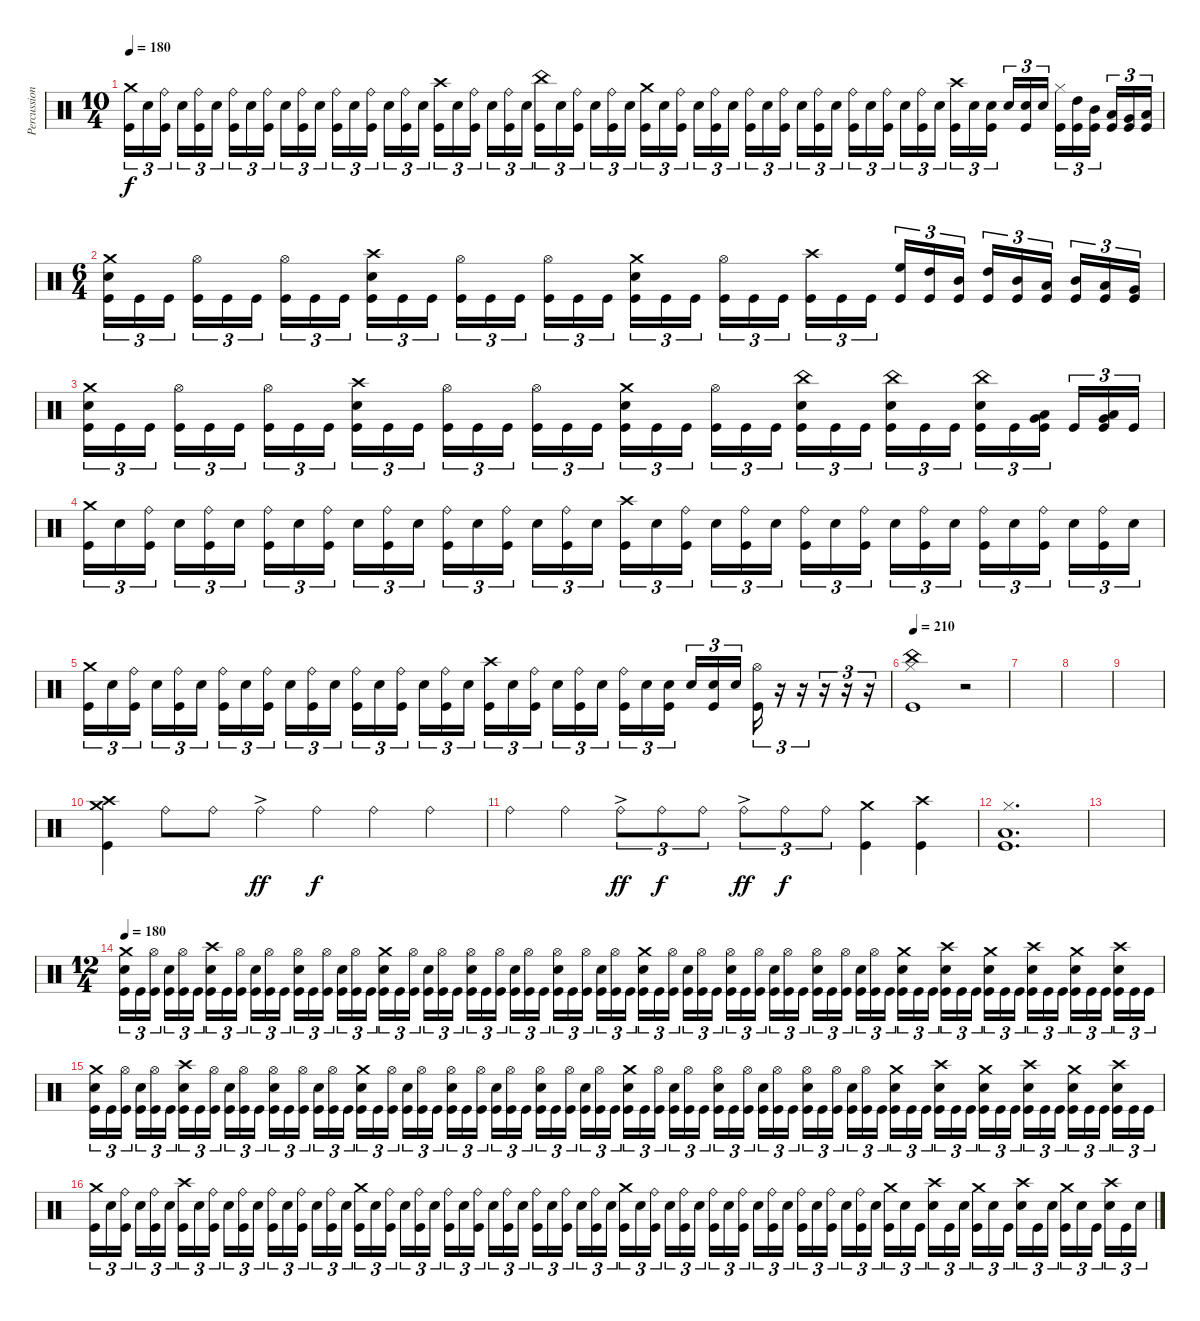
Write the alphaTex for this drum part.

\track ("Percussion" "Percussion") {instrument percussion}
\staff {score}
\articulation defaults
\ts (10 4)
\tempo 180
\clef neutral
\ks c
("Crash medium (hit)" "Kick (hit)").16{tu (3 2) dy f} "Snare (hit) 2".16{tu (3 2)} ("Ride (bell)" "Kick (hit)").16{tu (3 2) beam splitsecondary} "Snare (hit) 2".16{tu (3 2)} ("Ride (bell)" "Kick (hit)").16{tu (3 2)} "Snare (hit) 2".16{tu (3 2)} ("Ride (bell)" "Kick (hit)").16{tu (3 2)} "Snare (hit) 2".16{tu (3 2)} ("Ride (bell)" "Kick (hit)").16{tu (3 2) beam splitsecondary} "Snare (hit) 2".16{tu (3 2)} ("Ride (bell)" "Kick (hit)").16{tu (3 2)} "Snare (hit) 2".16{tu (3 2)} ("Ride (bell)" "Kick (hit)").16{tu (3 2)} "Snare (hit) 2".16{tu (3 2)} ("Ride (bell)" "Kick (hit)").16{tu (3 2) beam splitsecondary} "Snare (hit) 2".16{tu (3 2)} ("Ride (bell)" "Kick (hit)").16{tu (3 2)} "Snare (hit) 2".16{tu (3 2)} ("Crash high (hit)" "Kick (hit)").16{tu (3 2)} "Snare (hit) 2".16{tu (3 2)} ("Ride (bell)" "Kick (hit)").16{tu (3 2) beam splitsecondary} "Snare (hit) 2".16{tu (3 2)} ("Ride (bell)" "Kick (hit)").16{tu (3 2)} "Snare (hit) 2".16{tu (3 2)} ("China (hit)" "Kick (hit)").16{tu (3 2)} "Snare (hit) 2".16{tu (3 2)} ("Ride (bell)" "Kick (hit)").16{tu (3 2) beam splitsecondary} "Snare (hit) 2".16{tu (3 2)} ("Ride (bell)" "Kick (hit)").16{tu (3 2)} "Snare (hit) 2".16{tu (3 2)} ("Crash medium (hit)" "Kick (hit)").16{tu (3 2)} "Snare (hit) 2".16{tu (3 2)} ("Ride (bell)" "Kick (hit)").16{tu (3 2) beam splitsecondary} "Snare (hit) 2".16{tu (3 2)} ("Ride (bell)" "Kick (hit)").16{tu (3 2)} "Snare (hit) 2".16{tu (3 2)} ("Ride (bell)" "Kick (hit)").16{tu (3 2)} "Snare (hit) 2".16{tu (3 2)} ("Ride (bell)" "Kick (hit)").16{tu (3 2) beam splitsecondary} "Snare (hit) 2".16{tu (3 2)} ("Ride (bell)" "Kick (hit)").16{tu (3 2)} "Snare (hit) 2".16{tu (3 2)} ("Ride (bell)" "Kick (hit)").16{tu (3 2)} "Snare (hit) 2".16{tu (3 2)} ("Ride (bell)" "Kick (hit)").16{tu (3 2) beam splitsecondary} "Snare (hit) 2".16{tu (3 2)} ("Ride (bell)" "Kick (hit)").16{tu (3 2)} "Snare (hit) 2".16{tu (3 2)} ("Crash high (hit)" "Kick (hit)").16{tu (3 2)} "Snare (hit) 2".16{tu (3 2)} ("Snare (hit) 2" "Kick (hit)").16{tu (3 2) beam splitsecondary} "Snare (hit) 2".16{tu (3 2)} ("Snare (hit) 2" "Kick (hit)").16{tu (3 2)} "Snare (hit) 2".16{tu (3 2)} ("Hi-Hat (closed)" "Kick (hit)").16{tu (3 2)} ("High Tom (hit)" "Kick (hit)").16{tu (3 2)} ("Mid Tom (hit)" "Kick (hit)").16{tu (3 2) beam splitsecondary} ("Low Tom (hit)" "Kick (hit)").16{tu (3 2)} ("Very Low Tom (hit)" "Kick (hit)").16{tu (3 2)} ("Low Floor Tom (hit)" "Kick (hit)").16{tu (3 2)} |
\ts (6 4)
("Crash medium (hit)" "Snare (hit) 2" "Kick (hit)").16{tu (3 2)} "Kick (hit)".16{tu (3 2)} "Kick (hit)".16{tu (3 2) beam splitsecondary} ("Hi-Hat (open)" "Kick (hit)").16{tu (3 2)} "Kick (hit)".16{tu (3 2)} "Kick (hit)".16{tu (3 2) beam splitsecondary} ("Hi-Hat (open)" "Kick (hit)").16{tu (3 2)} "Kick (hit)".16{tu (3 2)} "Kick (hit)".16{tu (3 2) beam splitsecondary} ("Crash high (hit)" "Snare (hit) 2" "Kick (hit)").16{tu (3 2)} "Kick (hit)".16{tu (3 2)} "Kick (hit)".16{tu (3 2) beam splitsecondary} ("Hi-Hat (open)" "Kick (hit)").16{tu (3 2)} "Kick (hit)".16{tu (3 2)} "Kick (hit)".16{tu (3 2) beam splitsecondary} ("Hi-Hat (open)" "Kick (hit)").16{tu (3 2)} "Kick (hit)".16{tu (3 2)} "Kick (hit)".16{tu (3 2)} ("Crash medium (hit)" "Snare (hit) 2" "Kick (hit)").16{tu (3 2)} "Kick (hit)".16{tu (3 2)} "Kick (hit)".16{tu (3 2) beam splitsecondary} ("Hi-Hat (open)" "Kick (hit)").16{tu (3 2)} "Kick (hit)".16{tu (3 2)} "Kick (hit)".16{tu (3 2) beam splitsecondary} ("Crash high (hit)" "Kick (hit)").16{tu (3 2)} "Kick (hit)".16{tu (3 2)} "Kick (hit)".16{tu (3 2) beam splitsecondary} ("High Floor Tom (hit)" "Kick (hit)").16{tu (3 2)} ("High Tom (hit)" "Kick (hit)").16{tu (3 2)} ("Mid Tom (hit)" "Kick (hit)").16{tu (3 2) beam splitsecondary} ("High Tom (hit)" "Kick (hit)").16{tu (3 2)} ("Mid Tom (hit)" "Kick (hit)").16{tu (3 2)} ("Low Tom (hit)" "Kick (hit)").16{tu (3 2) beam splitsecondary} ("Mid Tom (hit)" "Kick (hit)").16{tu (3 2)} ("Low Tom (hit)" "Kick (hit)").16{tu (3 2)} ("Very Low Tom (hit)" "Kick (hit)").16{tu (3 2)} |
("Crash medium (hit)" "Snare (hit) 2" "Kick (hit)").16{tu (3 2)} "Kick (hit)".16{tu (3 2)} "Kick (hit)".16{tu (3 2) beam splitsecondary} ("Hi-Hat (open)" "Kick (hit)").16{tu (3 2)} "Kick (hit)".16{tu (3 2)} "Kick (hit)".16{tu (3 2) beam splitsecondary} ("Hi-Hat (open)" "Kick (hit)").16{tu (3 2)} "Kick (hit)".16{tu (3 2)} "Kick (hit)".16{tu (3 2) beam splitsecondary} ("Crash high (hit)" "Snare (hit) 2" "Kick (hit)").16{tu (3 2)} "Kick (hit)".16{tu (3 2)} "Kick (hit)".16{tu (3 2) beam splitsecondary} ("Hi-Hat (open)" "Kick (hit)").16{tu (3 2)} "Kick (hit)".16{tu (3 2)} "Kick (hit)".16{tu (3 2) beam splitsecondary} ("Hi-Hat (open)" "Kick (hit)").16{tu (3 2)} "Kick (hit)".16{tu (3 2)} "Kick (hit)".16{tu (3 2)} ("Crash medium (hit)" "Snare (hit) 2" "Kick (hit)").16{tu (3 2)} "Kick (hit)".16{tu (3 2)} "Kick (hit)".16{tu (3 2) beam splitsecondary} ("Hi-Hat (open)" "Kick (hit)").16{tu (3 2)} "Kick (hit)".16{tu (3 2)} "Kick (hit)".16{tu (3 2) beam splitsecondary} ("China (hit)" "Snare (hit) 2" "Kick (hit)").16{tu (3 2)} "Kick (hit)".16{tu (3 2)} "Kick (hit)".16{tu (3 2) beam splitsecondary} ("China (hit)" "Snare (hit) 2" "Kick (hit)").16{tu (3 2)} "Kick (hit)".16{tu (3 2)} "Kick (hit)".16{tu (3 2) beam splitsecondary} ("China (hit)" "Snare (hit) 2" "Kick (hit)").16{tu (3 2)} "Kick (hit)".16{tu (3 2)} ("Very Low Tom (hit)" "Low Floor Tom (hit)" "Kick (hit)").16{tu (3 2) beam splitsecondary} "Kick (hit)".16{tu (3 2)} ("Very Low Tom (hit)" "Low Floor Tom (hit)" "Kick (hit)").16{tu (3 2)} "Kick (hit)".16{tu (3 2)} |
("Crash medium (hit)" "Kick (hit)").16{tu (3 2)} "Snare (hit) 2".16{tu (3 2)} ("Ride (bell)" "Kick (hit)").16{tu (3 2) beam splitsecondary} "Snare (hit) 2".16{tu (3 2)} ("Ride (bell)" "Kick (hit)").16{tu (3 2)} "Snare (hit) 2".16{tu (3 2) beam splitsecondary} ("Ride (bell)" "Kick (hit)").16{tu (3 2)} "Snare (hit) 2".16{tu (3 2)} ("Ride (bell)" "Kick (hit)").16{tu (3 2) beam splitsecondary} "Snare (hit) 2".16{tu (3 2)} ("Ride (bell)" "Kick (hit)").16{tu (3 2)} "Snare (hit) 2".16{tu (3 2) beam splitsecondary} ("Ride (bell)" "Kick (hit)").16{tu (3 2)} "Snare (hit) 2".16{tu (3 2)} ("Ride (bell)" "Kick (hit)").16{tu (3 2) beam splitsecondary} "Snare (hit) 2".16{tu (3 2)} ("Ride (bell)" "Kick (hit)").16{tu (3 2)} "Snare (hit) 2".16{tu (3 2)} ("Crash high (hit)" "Kick (hit)").16{tu (3 2)} "Snare (hit) 2".16{tu (3 2)} ("Ride (bell)" "Kick (hit)").16{tu (3 2) beam splitsecondary} "Snare (hit) 2".16{tu (3 2)} ("Ride (bell)" "Kick (hit)").16{tu (3 2)} "Snare (hit) 2".16{tu (3 2) beam splitsecondary} ("Ride (bell)" "Kick (hit)").16{tu (3 2)} "Snare (hit) 2".16{tu (3 2)} ("Ride (bell)" "Kick (hit)").16{tu (3 2) beam splitsecondary} "Snare (hit) 2".16{tu (3 2)} ("Ride (bell)" "Kick (hit)").16{tu (3 2)} "Snare (hit) 2".16{tu (3 2) beam splitsecondary} ("Ride (bell)" "Kick (hit)").16{tu (3 2)} "Snare (hit) 2".16{tu (3 2)} ("Ride (bell)" "Kick (hit)").16{tu (3 2) beam splitsecondary} "Snare (hit) 2".16{tu (3 2)} ("Ride (bell)" "Kick (hit)").16{tu (3 2)} "Snare (hit) 2".16{tu (3 2)} |
("Crash medium (hit)" "Kick (hit)").16{tu (3 2)} "Snare (hit) 2".16{tu (3 2)} ("Ride (bell)" "Kick (hit)").16{tu (3 2) beam splitsecondary} "Snare (hit) 2".16{tu (3 2)} ("Ride (bell)" "Kick (hit)").16{tu (3 2)} "Snare (hit) 2".16{tu (3 2) beam splitsecondary} ("Ride (bell)" "Kick (hit)").16{tu (3 2)} "Snare (hit) 2".16{tu (3 2)} ("Ride (bell)" "Kick (hit)").16{tu (3 2) beam splitsecondary} "Snare (hit) 2".16{tu (3 2)} ("Ride (bell)" "Kick (hit)").16{tu (3 2)} "Snare (hit) 2".16{tu (3 2) beam splitsecondary} ("Ride (bell)" "Kick (hit)").16{tu (3 2)} "Snare (hit) 2".16{tu (3 2)} ("Ride (bell)" "Kick (hit)").16{tu (3 2) beam splitsecondary} "Snare (hit) 2".16{tu (3 2)} ("Ride (bell)" "Kick (hit)").16{tu (3 2)} "Snare (hit) 2".16{tu (3 2)} ("Crash high (hit)" "Kick (hit)").16{tu (3 2)} "Snare (hit) 2".16{tu (3 2)} ("Ride (bell)" "Kick (hit)").16{tu (3 2) beam splitsecondary} "Snare (hit) 2".16{tu (3 2)} ("Ride (bell)" "Kick (hit)").16{tu (3 2)} "Snare (hit) 2".16{tu (3 2) beam splitsecondary} ("Ride (bell)" "Kick (hit)").16{tu (3 2)} "Snare (hit) 2".16{tu (3 2)} ("Snare (hit) 2" "Kick (hit)").16{tu (3 2) beam splitsecondary} "Snare (hit) 2".16{tu (3 2)} ("Snare (hit) 2" "Kick (hit)").16{tu (3 2)} "Snare (hit) 2".16{tu (3 2) beam splitsecondary} ("Hi-Hat (open)" "Kick (hit)").16{tu (3 2)} r.16{tu (3 2)} r.16{tu (3 2)} r.16{tu (3 2)} r.16{tu (3 2)} r.16{tu (3 2)} |
\tempo 210
("China (hit)" "Hi-Hat (closed)" "Kick (hit)").1 r.2 |
|
|
|
("Crash medium (hit)" "Crash high (hit)" "Kick (hit)").4 "Ride (bell)".8 "Ride (bell)".8 "Ride (bell)"{ac}.4{dy ff} "Ride (bell)".4{dy f} "Ride (bell)".4 "Ride (bell)".4 |
"Ride (bell)".4 "Ride (bell)".4 "Ride (bell)"{ac}.8{tu (3 2) dy ff} "Ride (bell)".8{tu (3 2) dy f} "Ride (bell)".8{tu (3 2)} "Ride (bell)"{ac}.8{tu (3 2) dy ff} "Ride (bell)".8{tu (3 2) dy f} "Ride (bell)".8{tu (3 2)} ("Crash medium (hit)" "Kick (hit)").4 ("Crash high (hit)" "Kick (hit)").4 |
("Low Floor Tom (hit)" "Hi-Hat (closed)" "Kick (hit)").1{d} |
|
\ts (12 4)
\tempo 180
("Crash medium (hit)" "Snare (hit) 2" "Kick (hit)").16{tu (3 2)} "Kick (hit)".16{tu (3 2)} ("Hi-Hat (open)" "Kick (hit)").16{tu (3 2) beam splitsecondary} ("Snare (hit) 2" "Kick (hit)").16{tu (3 2)} ("Hi-Hat (open)" "Kick (hit)").16{tu (3 2)} "Kick (hit)".16{tu (3 2) beam splitsecondary} ("Crash high (hit)" "Snare (hit) 2" "Kick (hit)").16{tu (3 2)} "Kick (hit)".16{tu (3 2)} ("Hi-Hat (open)" "Kick (hit)").16{tu (3 2) beam splitsecondary} ("Snare (hit) 2" "Kick (hit)").16{tu (3 2)} ("Hi-Hat (open)" "Kick (hit)").16{tu (3 2)} "Kick (hit)".16{tu (3 2) beam splitsecondary} ("Hi-Hat (open)" "Snare (hit) 2" "Kick (hit)").16{tu (3 2)} "Kick (hit)".16{tu (3 2)} ("Hi-Hat (open)" "Kick (hit)").16{tu (3 2) beam splitsecondary} ("Snare (hit) 2" "Kick (hit)").16{tu (3 2)} ("Hi-Hat (open)" "Kick (hit)").16{tu (3 2)} "Kick (hit)".16{tu (3 2)} ("Crash medium (hit)" "Snare (hit) 2" "Kick (hit)").16{tu (3 2)} "Kick (hit)".16{tu (3 2)} ("Hi-Hat (open)" "Kick (hit)").16{tu (3 2) beam splitsecondary} ("Snare (hit) 2" "Kick (hit)").16{tu (3 2)} ("Hi-Hat (open)" "Kick (hit)").16{tu (3 2)} "Kick (hit)".16{tu (3 2) beam splitsecondary} ("Hi-Hat (open)" "Snare (hit) 2" "Kick (hit)").16{tu (3 2)} "Kick (hit)".16{tu (3 2)} ("Hi-Hat (open)" "Kick (hit)").16{tu (3 2) beam splitsecondary} ("Snare (hit) 2" "Kick (hit)").16{tu (3 2)} ("Hi-Hat (open)" "Kick (hit)").16{tu (3 2)} "Kick (hit)".16{tu (3 2) beam splitsecondary} ("Hi-Hat (open)" "Snare (hit) 2" "Kick (hit)").16{tu (3 2)} "Kick (hit)".16{tu (3 2)} ("Hi-Hat (open)" "Kick (hit)").16{tu (3 2) beam splitsecondary} ("Snare (hit) 2" "Kick (hit)").16{tu (3 2)} ("Hi-Hat (open)" "Kick (hit)").16{tu (3 2)} "Kick (hit)".16{tu (3 2)} ("Crash medium (hit)" "Snare (hit) 2" "Kick (hit)").16{tu (3 2)} "Kick (hit)".16{tu (3 2)} ("Hi-Hat (open)" "Kick (hit)").16{tu (3 2) beam splitsecondary} ("Snare (hit) 2" "Kick (hit)").16{tu (3 2)} ("Hi-Hat (open)" "Kick (hit)").16{tu (3 2)} "Kick (hit)".16{tu (3 2) beam splitsecondary} ("Hi-Hat (open)" "Snare (hit) 2" "Kick (hit)").16{tu (3 2)} "Kick (hit)".16{tu (3 2)} ("Hi-Hat (open)" "Kick (hit)").16{tu (3 2) beam splitsecondary} ("Snare (hit) 2" "Kick (hit)").16{tu (3 2)} ("Hi-Hat (open)" "Kick (hit)").16{tu (3 2)} "Kick (hit)".16{tu (3 2) beam splitsecondary} ("Hi-Hat (open)" "Snare (hit) 2" "Kick (hit)").16{tu (3 2)} "Kick (hit)".16{tu (3 2)} ("Hi-Hat (open)" "Kick (hit)").16{tu (3 2) beam splitsecondary} ("Snare (hit) 2" "Kick (hit)").16{tu (3 2)} ("Hi-Hat (open)" "Kick (hit)").16{tu (3 2)} "Kick (hit)".16{tu (3 2)} ("Crash medium (hit)" "Snare (hit) 2" "Kick (hit)").16{tu (3 2)} "Kick (hit)".16{tu (3 2)} "Kick (hit)".16{tu (3 2) beam splitsecondary} ("Crash high (hit)" "Snare (hit) 2" "Kick (hit)").16{tu (3 2)} "Kick (hit)".16{tu (3 2)} "Kick (hit)".16{tu (3 2) beam splitsecondary} ("Crash medium (hit)" "Snare (hit) 2" "Kick (hit)").16{tu (3 2)} "Kick (hit)".16{tu (3 2)} "Kick (hit)".16{tu (3 2) beam splitsecondary} ("Crash high (hit)" "Snare (hit) 2" "Kick (hit)").16{tu (3 2)} "Kick (hit)".16{tu (3 2)} "Kick (hit)".16{tu (3 2) beam splitsecondary} ("Crash medium (hit)" "Snare (hit) 2" "Kick (hit)").16{tu (3 2)} "Kick (hit)".16{tu (3 2)} "Kick (hit)".16{tu (3 2) beam splitsecondary} ("Crash high (hit)" "Snare (hit) 2" "Kick (hit)").16{tu (3 2)} "Kick (hit)".16{tu (3 2)} "Kick (hit)".16{tu (3 2)} |
("Crash medium (hit)" "Snare (hit) 2" "Kick (hit)").16{tu (3 2)} "Kick (hit)".16{tu (3 2)} ("Hi-Hat (open)" "Kick (hit)").16{tu (3 2) beam splitsecondary} ("Snare (hit) 2" "Kick (hit)").16{tu (3 2)} ("Hi-Hat (open)" "Kick (hit)").16{tu (3 2)} "Kick (hit)".16{tu (3 2) beam splitsecondary} ("Crash high (hit)" "Snare (hit) 2" "Kick (hit)").16{tu (3 2)} "Kick (hit)".16{tu (3 2)} ("Hi-Hat (open)" "Kick (hit)").16{tu (3 2) beam splitsecondary} ("Snare (hit) 2" "Kick (hit)").16{tu (3 2)} ("Hi-Hat (open)" "Kick (hit)").16{tu (3 2)} "Kick (hit)".16{tu (3 2) beam splitsecondary} ("Hi-Hat (open)" "Snare (hit) 2" "Kick (hit)").16{tu (3 2)} "Kick (hit)".16{tu (3 2)} ("Hi-Hat (open)" "Kick (hit)").16{tu (3 2) beam splitsecondary} ("Snare (hit) 2" "Kick (hit)").16{tu (3 2)} ("Hi-Hat (open)" "Kick (hit)").16{tu (3 2)} "Kick (hit)".16{tu (3 2)} ("Crash medium (hit)" "Snare (hit) 2" "Kick (hit)").16{tu (3 2)} "Kick (hit)".16{tu (3 2)} ("Hi-Hat (open)" "Kick (hit)").16{tu (3 2) beam splitsecondary} ("Snare (hit) 2" "Kick (hit)").16{tu (3 2)} ("Hi-Hat (open)" "Kick (hit)").16{tu (3 2)} "Kick (hit)".16{tu (3 2) beam splitsecondary} ("Hi-Hat (open)" "Snare (hit) 2" "Kick (hit)").16{tu (3 2)} "Kick (hit)".16{tu (3 2)} ("Hi-Hat (open)" "Kick (hit)").16{tu (3 2) beam splitsecondary} ("Snare (hit) 2" "Kick (hit)").16{tu (3 2)} ("Hi-Hat (open)" "Kick (hit)").16{tu (3 2)} "Kick (hit)".16{tu (3 2) beam splitsecondary} ("Hi-Hat (open)" "Snare (hit) 2" "Kick (hit)").16{tu (3 2)} "Kick (hit)".16{tu (3 2)} ("Hi-Hat (open)" "Kick (hit)").16{tu (3 2) beam splitsecondary} ("Snare (hit) 2" "Kick (hit)").16{tu (3 2)} ("Hi-Hat (open)" "Kick (hit)").16{tu (3 2)} "Kick (hit)".16{tu (3 2)} ("Crash medium (hit)" "Snare (hit) 2" "Kick (hit)").16{tu (3 2)} "Kick (hit)".16{tu (3 2)} ("Hi-Hat (open)" "Kick (hit)").16{tu (3 2) beam splitsecondary} ("Snare (hit) 2" "Kick (hit)").16{tu (3 2)} ("Hi-Hat (open)" "Kick (hit)").16{tu (3 2)} "Kick (hit)".16{tu (3 2) beam splitsecondary} ("Hi-Hat (open)" "Snare (hit) 2" "Kick (hit)").16{tu (3 2)} "Kick (hit)".16{tu (3 2)} ("Hi-Hat (open)" "Kick (hit)").16{tu (3 2) beam splitsecondary} ("Snare (hit) 2" "Kick (hit)").16{tu (3 2)} ("Hi-Hat (open)" "Kick (hit)").16{tu (3 2)} "Kick (hit)".16{tu (3 2) beam splitsecondary} ("Hi-Hat (open)" "Snare (hit) 2" "Kick (hit)").16{tu (3 2)} "Kick (hit)".16{tu (3 2)} ("Hi-Hat (open)" "Kick (hit)").16{tu (3 2) beam splitsecondary} ("Snare (hit) 2" "Kick (hit)").16{tu (3 2)} ("Hi-Hat (open)" "Kick (hit)").16{tu (3 2)} "Kick (hit)".16{tu (3 2)} ("Crash medium (hit)" "Snare (hit) 2" "Kick (hit)").16{tu (3 2)} "Kick (hit)".16{tu (3 2)} "Kick (hit)".16{tu (3 2) beam splitsecondary} ("Crash high (hit)" "Snare (hit) 2" "Kick (hit)").16{tu (3 2)} "Kick (hit)".16{tu (3 2)} "Kick (hit)".16{tu (3 2) beam splitsecondary} ("Crash medium (hit)" "Snare (hit) 2" "Kick (hit)").16{tu (3 2)} "Kick (hit)".16{tu (3 2)} "Kick (hit)".16{tu (3 2) beam splitsecondary} ("Crash high (hit)" "Snare (hit) 2" "Kick (hit)").16{tu (3 2)} "Kick (hit)".16{tu (3 2)} "Kick (hit)".16{tu (3 2) beam splitsecondary} ("Crash medium (hit)" "Snare (hit) 2" "Kick (hit)").16{tu (3 2)} "Kick (hit)".16{tu (3 2)} "Kick (hit)".16{tu (3 2) beam splitsecondary} ("Crash high (hit)" "Snare (hit) 2" "Kick (hit)").16{tu (3 2)} "Kick (hit)".16{tu (3 2)} "Kick (hit)".16{tu (3 2)} |
("Crash medium (hit)" "Kick (hit)").16{tu (3 2)} "Snare (hit) 2".16{tu (3 2)} ("Ride (bell)" "Kick (hit)").16{tu (3 2) beam splitsecondary} "Snare (hit) 2".16{tu (3 2)} ("Ride (bell)" "Kick (hit)").16{tu (3 2)} "Snare (hit) 2".16{tu (3 2) beam splitsecondary} ("Crash high (hit)" "Kick (hit)").16{tu (3 2)} "Snare (hit) 2".16{tu (3 2)} ("Ride (bell)" "Kick (hit)").16{tu (3 2) beam splitsecondary} "Snare (hit) 2".16{tu (3 2)} ("Ride (bell)" "Kick (hit)").16{tu (3 2)} "Snare (hit) 2".16{tu (3 2) beam splitsecondary} ("Ride (bell)" "Kick (hit)").16{tu (3 2)} "Snare (hit) 2".16{tu (3 2)} ("Ride (bell)" "Kick (hit)").16{tu (3 2) beam splitsecondary} "Snare (hit) 2".16{tu (3 2)} ("Ride (bell)" "Kick (hit)").16{tu (3 2)} "Snare (hit) 2".16{tu (3 2)} ("Crash medium (hit)" "Kick (hit)").16{tu (3 2)} "Snare (hit) 2".16{tu (3 2)} ("Ride (bell)" "Kick (hit)").16{tu (3 2) beam splitsecondary} "Snare (hit) 2".16{tu (3 2)} ("Ride (bell)" "Kick (hit)").16{tu (3 2)} "Snare (hit) 2".16{tu (3 2) beam splitsecondary} ("Ride (bell)" "Kick (hit)").16{tu (3 2)} "Snare (hit) 2".16{tu (3 2)} ("Ride (bell)" "Kick (hit)").16{tu (3 2) beam splitsecondary} "Snare (hit) 2".16{tu (3 2)} ("Ride (bell)" "Kick (hit)").16{tu (3 2)} "Snare (hit) 2".16{tu (3 2) beam splitsecondary} ("Ride (bell)" "Kick (hit)").16{tu (3 2)} "Snare (hit) 2".16{tu (3 2)} ("Ride (bell)" "Kick (hit)").16{tu (3 2) beam splitsecondary} "Snare (hit) 2".16{tu (3 2)} ("Ride (bell)" "Kick (hit)").16{tu (3 2)} "Snare (hit) 2".16{tu (3 2)} ("Crash medium (hit)" "Kick (hit)").16{tu (3 2)} "Snare (hit) 2".16{tu (3 2)} ("Ride (bell)" "Kick (hit)").16{tu (3 2) beam splitsecondary} "Snare (hit) 2".16{tu (3 2)} ("Ride (bell)" "Kick (hit)").16{tu (3 2)} "Snare (hit) 2".16{tu (3 2) beam splitsecondary} ("Ride (bell)" "Kick (hit)").16{tu (3 2)} "Snare (hit) 2".16{tu (3 2)} ("Ride (bell)" "Kick (hit)").16{tu (3 2) beam splitsecondary} "Snare (hit) 2".16{tu (3 2)} ("Ride (bell)" "Kick (hit)").16{tu (3 2)} "Snare (hit) 2".16{tu (3 2) beam splitsecondary} ("Ride (bell)" "Kick (hit)").16{tu (3 2)} "Snare (hit) 2".16{tu (3 2)} ("Ride (bell)" "Kick (hit)").16{tu (3 2) beam splitsecondary} "Snare (hit) 2".16{tu (3 2)} ("Ride (bell)" "Kick (hit)").16{tu (3 2)} "Snare (hit) 2".16{tu (3 2)} ("Crash medium (hit)" "Kick (hit)").16{tu (3 2)} "Snare (hit) 2".16{tu (3 2)} "Kick (hit)".16{tu (3 2) beam splitsecondary} ("Crash high (hit)" "Snare (hit) 2").16{tu (3 2)} "Kick (hit)".16{tu (3 2)} "Snare (hit) 2".16{tu (3 2) beam splitsecondary} ("Crash medium (hit)" "Kick (hit)").16{tu (3 2)} "Snare (hit) 2".16{tu (3 2)} "Kick (hit)".16{tu (3 2) beam splitsecondary} ("Crash high (hit)" "Snare (hit) 2").16{tu (3 2)} "Kick (hit)".16{tu (3 2)} "Snare (hit) 2".16{tu (3 2) beam splitsecondary} ("Crash medium (hit)" "Kick (hit)").16{tu (3 2)} "Snare (hit) 2".16{tu (3 2)} "Kick (hit)".16{tu (3 2) beam splitsecondary} ("Crash high (hit)" "Snare (hit) 2").16{tu (3 2)} "Kick (hit)".16{tu (3 2)} "Snare (hit) 2".16{tu (3 2)}
